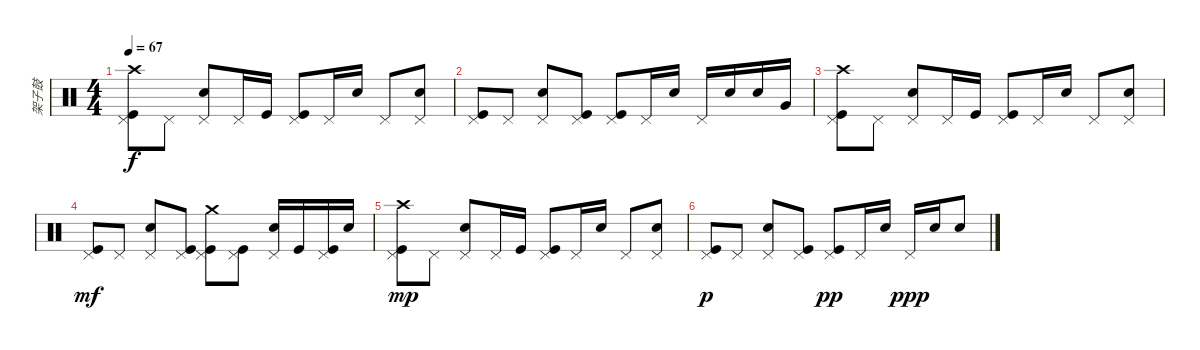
\track ("架子鼓" "架子鼓") {instrument percussion}
\staff {score}
\articulation defaults
\ts (4 4)
\tempo 67
\clef neutral
\ks c
("Kick (hit)" "Pedal Hi-Hat (hit)" "Crash high (hit)").8{dy f} "Pedal Hi-Hat (hit)".8 ("Snare (hit) 2" "Pedal Hi-Hat (hit)").8 "Pedal Hi-Hat (hit)".16 "Kick (hit)".16 ("Kick (hit)" "Pedal Hi-Hat (hit)").8 "Pedal Hi-Hat (hit)".16 "Snare (hit) 2".16 "Pedal Hi-Hat (hit)".8 ("Snare (hit) 2" "Pedal Hi-Hat (hit)").8 |
("Kick (hit)" "Pedal Hi-Hat (hit)").8 "Pedal Hi-Hat (hit)".8 ("Snare (hit) 2" "Pedal Hi-Hat (hit)").8 ("Kick (hit)" "Pedal Hi-Hat (hit)").8 ("Kick (hit)" "Pedal Hi-Hat (hit)").8 "Pedal Hi-Hat (hit)".16 "Snare (hit) 2".16 "Pedal Hi-Hat (hit)".16 "Snare (hit) 2".16 "Snare (hit) 2".16 "Very Low Tom (hit)".16 |
("Kick (hit)" "Pedal Hi-Hat (hit)" "Crash high (hit)").8 "Pedal Hi-Hat (hit)".8 ("Snare (hit) 2" "Pedal Hi-Hat (hit)").8 "Pedal Hi-Hat (hit)".16 "Kick (hit)".16 ("Kick (hit)" "Pedal Hi-Hat (hit)").8 "Pedal Hi-Hat (hit)".16 "Snare (hit) 2".16 "Pedal Hi-Hat (hit)".8 ("Snare (hit) 2" "Pedal Hi-Hat (hit)").8 |
("Kick (hit)" "Pedal Hi-Hat (hit)").8{dy mf} "Pedal Hi-Hat (hit)".8 ("Snare (hit) 2" "Pedal Hi-Hat (hit)").8 ("Kick (hit)" "Pedal Hi-Hat (hit)").8 ("Kick (hit)" "Pedal Hi-Hat (hit)" "Crash medium (hit)").8 ("Kick (hit)" "Pedal Hi-Hat (hit)").8 ("Snare (hit) 2" "Pedal Hi-Hat (hit)").16 "Kick (hit)".16 ("Kick (hit)" "Pedal Hi-Hat (hit)").16 "Snare (hit) 2".16 |
("Kick (hit)" "Pedal Hi-Hat (hit)" "Crash high (hit)").8{dy mp} "Pedal Hi-Hat (hit)".8 ("Snare (hit) 2" "Pedal Hi-Hat (hit)").8 "Pedal Hi-Hat (hit)".16 "Kick (hit)".16 ("Kick (hit)" "Pedal Hi-Hat (hit)").8 "Pedal Hi-Hat (hit)".16 "Snare (hit) 2".16 "Pedal Hi-Hat (hit)".8 ("Snare (hit) 2" "Pedal Hi-Hat (hit)").8 |
("Kick (hit)" "Pedal Hi-Hat (hit)").8{dy p} "Pedal Hi-Hat (hit)".8 ("Snare (hit) 2" "Pedal Hi-Hat (hit)").8 ("Kick (hit)" "Pedal Hi-Hat (hit)").8 ("Kick (hit)" "Pedal Hi-Hat (hit)").8{dy pp} "Pedal Hi-Hat (hit)".16 "Snare (hit) 2".16 "Pedal Hi-Hat (hit)".16{dy ppp} "Snare (hit) 2".16 "Snare (hit) 2".8
